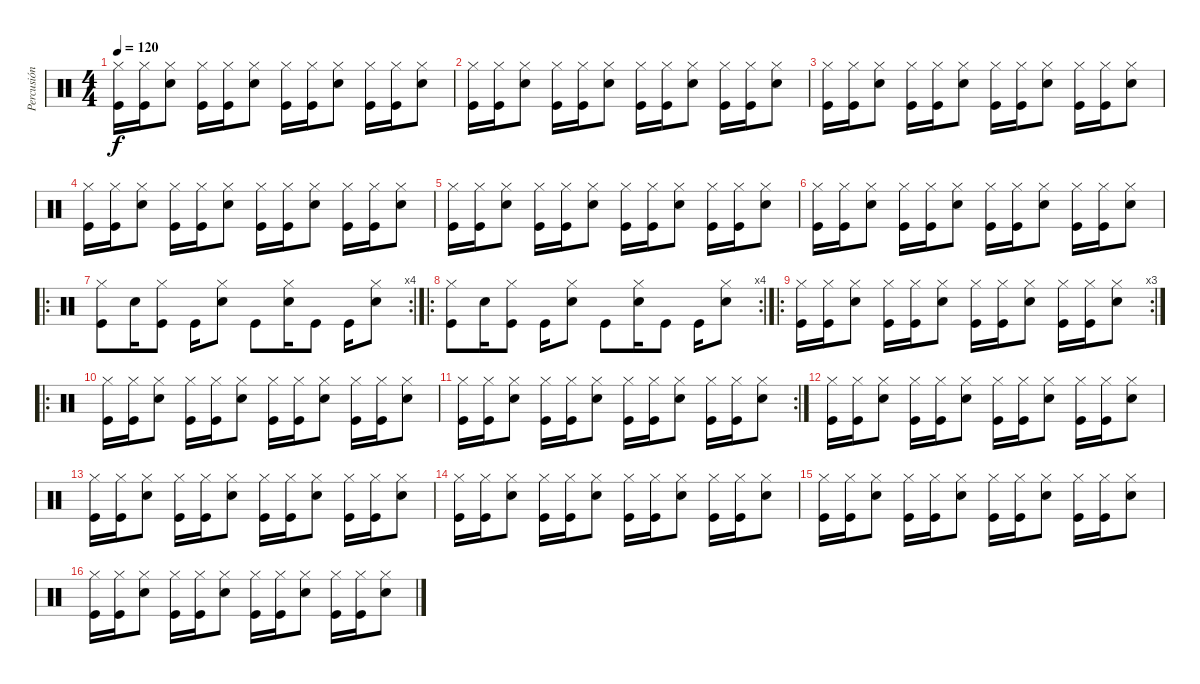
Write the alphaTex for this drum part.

\track ("Percusión" "Percusión") {instrument percussion}
\staff {score}
\articulation defaults
\ts (4 4)
\tempo 120
\clef neutral
\ks c
("Hi-Hat (closed)" "Kick (hit)").16{dy f} ("Hi-Hat (closed)" "Kick (hit)").16 ("Hi-Hat (closed)" "Electric Snare (hit)").8 ("Hi-Hat (closed)" "Kick (hit)").16 ("Hi-Hat (closed)" "Kick (hit)").16 ("Hi-Hat (closed)" "Electric Snare (hit)").8 ("Hi-Hat (closed)" "Kick (hit)").16 ("Hi-Hat (closed)" "Kick (hit)").16 ("Hi-Hat (closed)" "Electric Snare (hit)").8 ("Hi-Hat (closed)" "Kick (hit)").16 ("Hi-Hat (closed)" "Kick (hit)").16 ("Hi-Hat (closed)" "Electric Snare (hit)").8 |
("Hi-Hat (closed)" "Kick (hit)").16 ("Hi-Hat (closed)" "Kick (hit)").16 ("Hi-Hat (closed)" "Electric Snare (hit)").8 ("Hi-Hat (closed)" "Kick (hit)").16 ("Hi-Hat (closed)" "Kick (hit)").16 ("Hi-Hat (closed)" "Electric Snare (hit)").8 ("Hi-Hat (closed)" "Kick (hit)").16 ("Hi-Hat (closed)" "Kick (hit)").16 ("Hi-Hat (closed)" "Electric Snare (hit)").8 ("Hi-Hat (closed)" "Kick (hit)").16 ("Hi-Hat (closed)" "Kick (hit)").16 ("Hi-Hat (closed)" "Electric Snare (hit)").8 |
("Hi-Hat (closed)" "Kick (hit)").16 ("Hi-Hat (closed)" "Kick (hit)").16 ("Hi-Hat (closed)" "Electric Snare (hit)").8 ("Hi-Hat (closed)" "Kick (hit)").16 ("Hi-Hat (closed)" "Kick (hit)").16 ("Hi-Hat (closed)" "Electric Snare (hit)").8 ("Hi-Hat (closed)" "Kick (hit)").16 ("Hi-Hat (closed)" "Kick (hit)").16 ("Hi-Hat (closed)" "Electric Snare (hit)").8 ("Hi-Hat (closed)" "Kick (hit)").16 ("Hi-Hat (closed)" "Kick (hit)").16 ("Hi-Hat (closed)" "Electric Snare (hit)").8 |
("Hi-Hat (closed)" "Kick (hit)").16 ("Hi-Hat (closed)" "Kick (hit)").16 ("Hi-Hat (closed)" "Electric Snare (hit)").8 ("Hi-Hat (closed)" "Kick (hit)").16 ("Hi-Hat (closed)" "Kick (hit)").16 ("Hi-Hat (closed)" "Electric Snare (hit)").8 ("Hi-Hat (closed)" "Kick (hit)").16 ("Hi-Hat (closed)" "Kick (hit)").16 ("Hi-Hat (closed)" "Electric Snare (hit)").8 ("Hi-Hat (closed)" "Kick (hit)").16 ("Hi-Hat (closed)" "Kick (hit)").16 ("Hi-Hat (closed)" "Electric Snare (hit)").8 |
("Hi-Hat (closed)" "Kick (hit)").16 ("Hi-Hat (closed)" "Kick (hit)").16 ("Hi-Hat (closed)" "Electric Snare (hit)").8 ("Hi-Hat (closed)" "Kick (hit)").16 ("Hi-Hat (closed)" "Kick (hit)").16 ("Hi-Hat (closed)" "Electric Snare (hit)").8 ("Hi-Hat (closed)" "Kick (hit)").16 ("Hi-Hat (closed)" "Kick (hit)").16 ("Hi-Hat (closed)" "Electric Snare (hit)").8 ("Hi-Hat (closed)" "Kick (hit)").16 ("Hi-Hat (closed)" "Kick (hit)").16 ("Hi-Hat (closed)" "Electric Snare (hit)").8 |
("Hi-Hat (closed)" "Kick (hit)").16 ("Hi-Hat (closed)" "Kick (hit)").16 ("Hi-Hat (closed)" "Electric Snare (hit)").8 ("Hi-Hat (closed)" "Kick (hit)").16 ("Hi-Hat (closed)" "Kick (hit)").16 ("Hi-Hat (closed)" "Electric Snare (hit)").8 ("Hi-Hat (closed)" "Kick (hit)").16 ("Hi-Hat (closed)" "Kick (hit)").16 ("Hi-Hat (closed)" "Electric Snare (hit)").8 ("Hi-Hat (closed)" "Kick (hit)").16 ("Hi-Hat (closed)" "Kick (hit)").16 ("Hi-Hat (closed)" "Electric Snare (hit)").8 |
\ro
\rc 4
("Hi-Hat (closed)" "Kick (hit)").8 "Electric Snare (hit)".16 ("Hi-Hat (closed)" "Kick (hit)").8 "Kick (hit)".16 ("Hi-Hat (closed)" "Electric Snare (hit)").8 "Kick (hit)".8 ("Hi-Hat (closed)" "Electric Snare (hit)").16 "Kick (hit)".8 "Kick (hit)".16 ("Hi-Hat (closed)" "Electric Snare (hit)").8 |
\ro
\rc 4
("Hi-Hat (closed)" "Kick (hit)").8 "Electric Snare (hit)".16 ("Hi-Hat (closed)" "Kick (hit)").8 "Kick (hit)".16 ("Hi-Hat (closed)" "Electric Snare (hit)").8 "Kick (hit)".8 ("Hi-Hat (closed)" "Electric Snare (hit)").16 "Kick (hit)".8 "Kick (hit)".16 ("Hi-Hat (closed)" "Electric Snare (hit)").8 |
\ro
\rc 3
("Hi-Hat (closed)" "Kick (hit)").16 ("Hi-Hat (closed)" "Kick (hit)").16 ("Hi-Hat (closed)" "Electric Snare (hit)").8 ("Hi-Hat (closed)" "Kick (hit)").16 ("Hi-Hat (closed)" "Kick (hit)").16 ("Hi-Hat (closed)" "Electric Snare (hit)").8 ("Hi-Hat (closed)" "Kick (hit)").16 ("Hi-Hat (closed)" "Kick (hit)").16 ("Hi-Hat (closed)" "Electric Snare (hit)").8 ("Hi-Hat (closed)" "Kick (hit)").16 ("Hi-Hat (closed)" "Kick (hit)").16 ("Hi-Hat (closed)" "Electric Snare (hit)").8 |
\ro
("Hi-Hat (closed)" "Kick (hit)").16 ("Hi-Hat (closed)" "Kick (hit)").16 ("Hi-Hat (closed)" "Electric Snare (hit)").8 ("Hi-Hat (closed)" "Kick (hit)").16 ("Hi-Hat (closed)" "Kick (hit)").16 ("Hi-Hat (closed)" "Electric Snare (hit)").8 ("Hi-Hat (closed)" "Kick (hit)").16 ("Hi-Hat (closed)" "Kick (hit)").16 ("Hi-Hat (closed)" "Electric Snare (hit)").8 ("Hi-Hat (closed)" "Kick (hit)").16 ("Hi-Hat (closed)" "Kick (hit)").16 ("Hi-Hat (closed)" "Electric Snare (hit)").8 |
\rc 2
("Hi-Hat (closed)" "Kick (hit)").16 ("Hi-Hat (closed)" "Kick (hit)").16 ("Hi-Hat (closed)" "Electric Snare (hit)").8 ("Hi-Hat (closed)" "Kick (hit)").16 ("Hi-Hat (closed)" "Kick (hit)").16 ("Hi-Hat (closed)" "Electric Snare (hit)").8 ("Hi-Hat (closed)" "Kick (hit)").16 ("Hi-Hat (closed)" "Kick (hit)").16 ("Hi-Hat (closed)" "Electric Snare (hit)").8 ("Hi-Hat (closed)" "Kick (hit)").16 ("Hi-Hat (closed)" "Kick (hit)").16 ("Hi-Hat (closed)" "Electric Snare (hit)").8 |
("Hi-Hat (closed)" "Kick (hit)").16 ("Hi-Hat (closed)" "Kick (hit)").16 ("Hi-Hat (closed)" "Electric Snare (hit)").8 ("Hi-Hat (closed)" "Kick (hit)").16 ("Hi-Hat (closed)" "Kick (hit)").16 ("Hi-Hat (closed)" "Electric Snare (hit)").8 ("Hi-Hat (closed)" "Kick (hit)").16 ("Hi-Hat (closed)" "Kick (hit)").16 ("Hi-Hat (closed)" "Electric Snare (hit)").8 ("Hi-Hat (closed)" "Kick (hit)").16 ("Hi-Hat (closed)" "Kick (hit)").16 ("Hi-Hat (closed)" "Electric Snare (hit)").8 |
("Hi-Hat (closed)" "Kick (hit)").16 ("Hi-Hat (closed)" "Kick (hit)").16 ("Hi-Hat (closed)" "Electric Snare (hit)").8 ("Hi-Hat (closed)" "Kick (hit)").16 ("Hi-Hat (closed)" "Kick (hit)").16 ("Hi-Hat (closed)" "Electric Snare (hit)").8 ("Hi-Hat (closed)" "Kick (hit)").16 ("Hi-Hat (closed)" "Kick (hit)").16 ("Hi-Hat (closed)" "Electric Snare (hit)").8 ("Hi-Hat (closed)" "Kick (hit)").16 ("Hi-Hat (closed)" "Kick (hit)").16 ("Hi-Hat (closed)" "Electric Snare (hit)").8 |
("Hi-Hat (closed)" "Kick (hit)").16 ("Hi-Hat (closed)" "Kick (hit)").16 ("Hi-Hat (closed)" "Electric Snare (hit)").8 ("Hi-Hat (closed)" "Kick (hit)").16 ("Hi-Hat (closed)" "Kick (hit)").16 ("Hi-Hat (closed)" "Electric Snare (hit)").8 ("Hi-Hat (closed)" "Kick (hit)").16 ("Hi-Hat (closed)" "Kick (hit)").16 ("Hi-Hat (closed)" "Electric Snare (hit)").8 ("Hi-Hat (closed)" "Kick (hit)").16 ("Hi-Hat (closed)" "Kick (hit)").16 ("Hi-Hat (closed)" "Electric Snare (hit)").8 |
("Hi-Hat (closed)" "Kick (hit)").16 ("Hi-Hat (closed)" "Kick (hit)").16 ("Hi-Hat (closed)" "Electric Snare (hit)").8 ("Hi-Hat (closed)" "Kick (hit)").16 ("Hi-Hat (closed)" "Kick (hit)").16 ("Hi-Hat (closed)" "Electric Snare (hit)").8 ("Hi-Hat (closed)" "Kick (hit)").16 ("Hi-Hat (closed)" "Kick (hit)").16 ("Hi-Hat (closed)" "Electric Snare (hit)").8 ("Hi-Hat (closed)" "Kick (hit)").16 ("Hi-Hat (closed)" "Kick (hit)").16 ("Hi-Hat (closed)" "Electric Snare (hit)").8 |
("Hi-Hat (closed)" "Kick (hit)").16 ("Hi-Hat (closed)" "Kick (hit)").16 ("Hi-Hat (closed)" "Electric Snare (hit)").8 ("Hi-Hat (closed)" "Kick (hit)").16 ("Hi-Hat (closed)" "Kick (hit)").16 ("Hi-Hat (closed)" "Electric Snare (hit)").8 ("Hi-Hat (closed)" "Kick (hit)").16 ("Hi-Hat (closed)" "Kick (hit)").16 ("Hi-Hat (closed)" "Electric Snare (hit)").8 ("Hi-Hat (closed)" "Kick (hit)").16 ("Hi-Hat (closed)" "Kick (hit)").16 ("Hi-Hat (closed)" "Electric Snare (hit)").8
